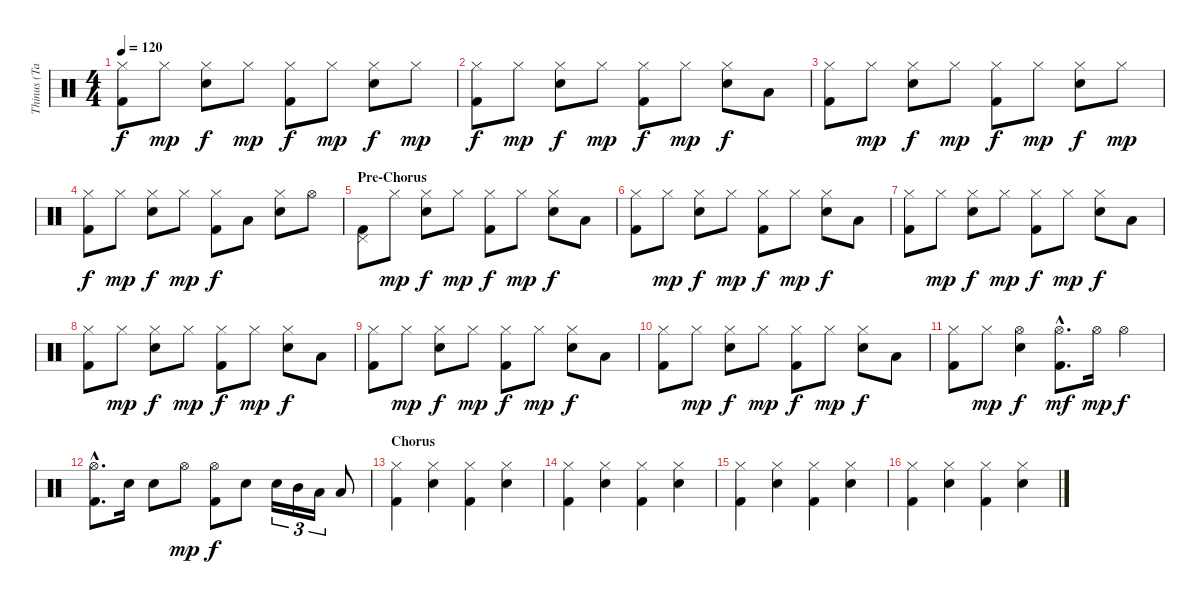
\track ("Thinus (Tain) Odendaal - Drums" "Thinus (Ta") {instrument percussion}
\staff {score}
\articulation defaults
\ts (4 4)
\tempo 120
\clef neutral
\ks c
("Hi-Hat (closed)" "Kick (hit) 2").8{dy f} "Hi-Hat (closed)".8{dy mp} ("Hi-Hat (closed)" "Snare (hit) 2").8{dy f} "Hi-Hat (closed)".8{dy mp} ("Hi-Hat (closed)" "Kick (hit) 2").8{dy f} "Hi-Hat (closed)".8{dy mp} ("Hi-Hat (closed)" "Snare (hit) 2").8{dy f} "Hi-Hat (closed)".8{dy mp} |
("Hi-Hat (closed)" "Kick (hit) 2").8{dy f} "Hi-Hat (closed)".8{dy mp} ("Hi-Hat (closed)" "Snare (hit) 2").8{dy f} "Hi-Hat (closed)".8{dy mp} ("Hi-Hat (closed)" "Kick (hit) 2").8{dy f} "Hi-Hat (closed)".8{dy mp} ("Hi-Hat (closed)" "Snare (hit) 2").8{dy f} "Low Tom (hit)".8 |
("Hi-Hat (closed)" "Kick (hit) 2").8 "Hi-Hat (closed)".8{dy mp} ("Hi-Hat (closed)" "Snare (hit) 2").8{dy f} "Hi-Hat (closed)".8{dy mp} ("Hi-Hat (closed)" "Kick (hit) 2").8{dy f} "Hi-Hat (closed)".8{dy mp} ("Hi-Hat (closed)" "Snare (hit) 2").8{dy f} "Hi-Hat (closed)".8{dy mp} |
("Hi-Hat (closed)" "Kick (hit) 2").8{dy f} "Hi-Hat (closed)".8{dy mp} ("Hi-Hat (closed)" "Snare (hit) 2").8{dy f} "Hi-Hat (closed)".8{dy mp} ("Hi-Hat (closed)" "Kick (hit) 2").8{dy f} "Low Tom (hit)".8 ("Hi-Hat (closed)" "Snare (hit) 2").8 "Hi-Hat (open)".8 |
\section ("" "Pre-Chorus")
("Pedal Hi-Hat (hit)" "Kick (hit) 2").8 "Hi-Hat (closed)".8{dy mp} ("Hi-Hat (closed)" "Snare (hit) 2").8{dy f} "Hi-Hat (closed)".8{dy mp} ("Hi-Hat (closed)" "Kick (hit) 2").8{dy f} "Hi-Hat (closed)".8{dy mp} ("Hi-Hat (closed)" "Snare (hit) 2").8{dy f} "Low Tom (hit)".8 |
("Hi-Hat (closed)" "Kick (hit) 2").8 "Hi-Hat (closed)".8{dy mp} ("Hi-Hat (closed)" "Snare (hit) 2").8{dy f} "Hi-Hat (closed)".8{dy mp} ("Hi-Hat (closed)" "Kick (hit) 2").8{dy f} "Hi-Hat (closed)".8{dy mp} ("Hi-Hat (closed)" "Snare (hit) 2").8{dy f} "Low Tom (hit)".8 |
("Hi-Hat (closed)" "Kick (hit) 2").8 "Hi-Hat (closed)".8{dy mp} ("Hi-Hat (closed)" "Snare (hit) 2").8{dy f} "Hi-Hat (closed)".8{dy mp} ("Hi-Hat (closed)" "Kick (hit) 2").8{dy f} "Hi-Hat (closed)".8{dy mp} ("Hi-Hat (closed)" "Snare (hit) 2").8{dy f} "Low Tom (hit)".8 |
("Hi-Hat (closed)" "Kick (hit) 2").8 "Hi-Hat (closed)".8{dy mp} ("Hi-Hat (closed)" "Snare (hit) 2").8{dy f} "Hi-Hat (closed)".8{dy mp} ("Hi-Hat (closed)" "Kick (hit) 2").8{dy f} "Hi-Hat (closed)".8{dy mp} ("Hi-Hat (closed)" "Snare (hit) 2").8{dy f} "Low Tom (hit)".8 |
("Hi-Hat (closed)" "Kick (hit) 2").8 "Hi-Hat (closed)".8{dy mp} ("Hi-Hat (closed)" "Snare (hit) 2").8{dy f} "Hi-Hat (closed)".8{dy mp} ("Hi-Hat (closed)" "Kick (hit) 2").8{dy f} "Hi-Hat (closed)".8{dy mp} ("Hi-Hat (closed)" "Snare (hit) 2").8{dy f} "Low Tom (hit)".8 |
("Hi-Hat (closed)" "Kick (hit) 2").8 "Hi-Hat (closed)".8{dy mp} ("Hi-Hat (closed)" "Snare (hit) 2").8{dy f} "Hi-Hat (closed)".8{dy mp} ("Hi-Hat (closed)" "Kick (hit) 2").8{dy f} "Hi-Hat (closed)".8{dy mp} ("Hi-Hat (closed)" "Snare (hit) 2").8{dy f} "Low Tom (hit)".8 |
("Hi-Hat (closed)" "Kick (hit) 2").8 "Hi-Hat (closed)".8{dy mp} ("Hi-Hat (open)" "Snare (hit) 2").4{dy f} ("Hi-Hat (open)"{hac} "Kick (hit) 2"{hac}).8{d dy mf} "Hi-Hat (open)".16{dy mp} "Hi-Hat (open)".4{dy f} |
("Hi-Hat (open)"{hac} "Kick (hit) 2"{hac}).8{d} "Snare (hit) 2".16 "Snare (hit) 2".8 "Hi-Hat (open)".8{dy mp} ("Hi-Hat (open)" "Kick (hit) 2").8{dy f} "Snare (hit) 2".8 "Snare (hit) 2".16{tu (3 2)} "Mid Tom (hit)".16{tu (3 2)} "Low Tom (hit)".16{tu (3 2)} "Low Floor Tom (hit)".8 |
\section ("" "Chorus")
("Hi-Hat (closed)" "Kick (hit) 2").4 ("Hi-Hat (closed)" "Snare (hit) 2").4 ("Hi-Hat (closed)" "Kick (hit) 2").4 ("Hi-Hat (closed)" "Snare (hit) 2").4 |
("Hi-Hat (closed)" "Kick (hit) 2").4 ("Hi-Hat (closed)" "Snare (hit) 2").4 ("Hi-Hat (closed)" "Kick (hit) 2").4 ("Hi-Hat (closed)" "Snare (hit) 2").4 |
("Hi-Hat (closed)" "Kick (hit) 2").4 ("Hi-Hat (closed)" "Snare (hit) 2").4 ("Hi-Hat (closed)" "Kick (hit) 2").4 ("Hi-Hat (closed)" "Snare (hit) 2").4 |
("Hi-Hat (closed)" "Kick (hit) 2").4 ("Hi-Hat (closed)" "Snare (hit) 2").4 ("Hi-Hat (closed)" "Kick (hit) 2").4 ("Hi-Hat (closed)" "Snare (hit) 2").4
